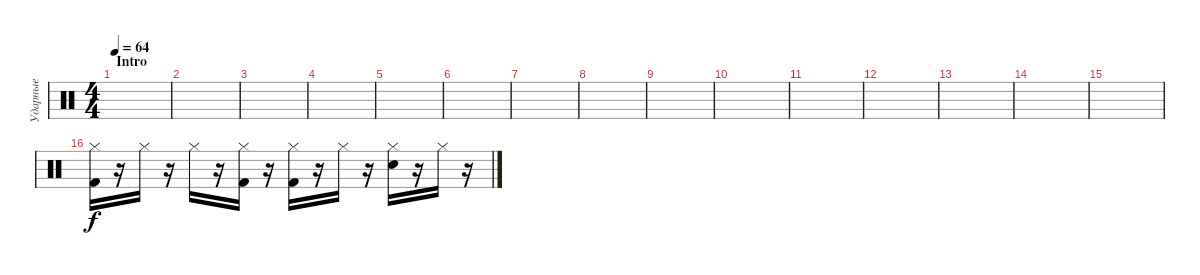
\track ("Ударные" "Ударные") {instrument percussion}
\staff {score}
\articulation defaults
\ts (4 4)
\section ("" "Intro")
\tempo 64
\clef neutral
\ks c
|
|
|
|
|
|
|
|
|
|
|
|
|
|
|
("Hi-Hat (closed)" "Kick (hit) 2").16 r.16 "Hi-Hat (closed)".16 r.16 "Hi-Hat (closed)".16 r.16 ("Hi-Hat (closed)" "Kick (hit) 2").16 r.16 ("Hi-Hat (closed)" "Kick (hit) 2").16 r.16 "Hi-Hat (closed)".16 r.16 ("Hi-Hat (closed)" "Snare (hit) 2").16 r.16 "Hi-Hat (closed)".16 r.16
